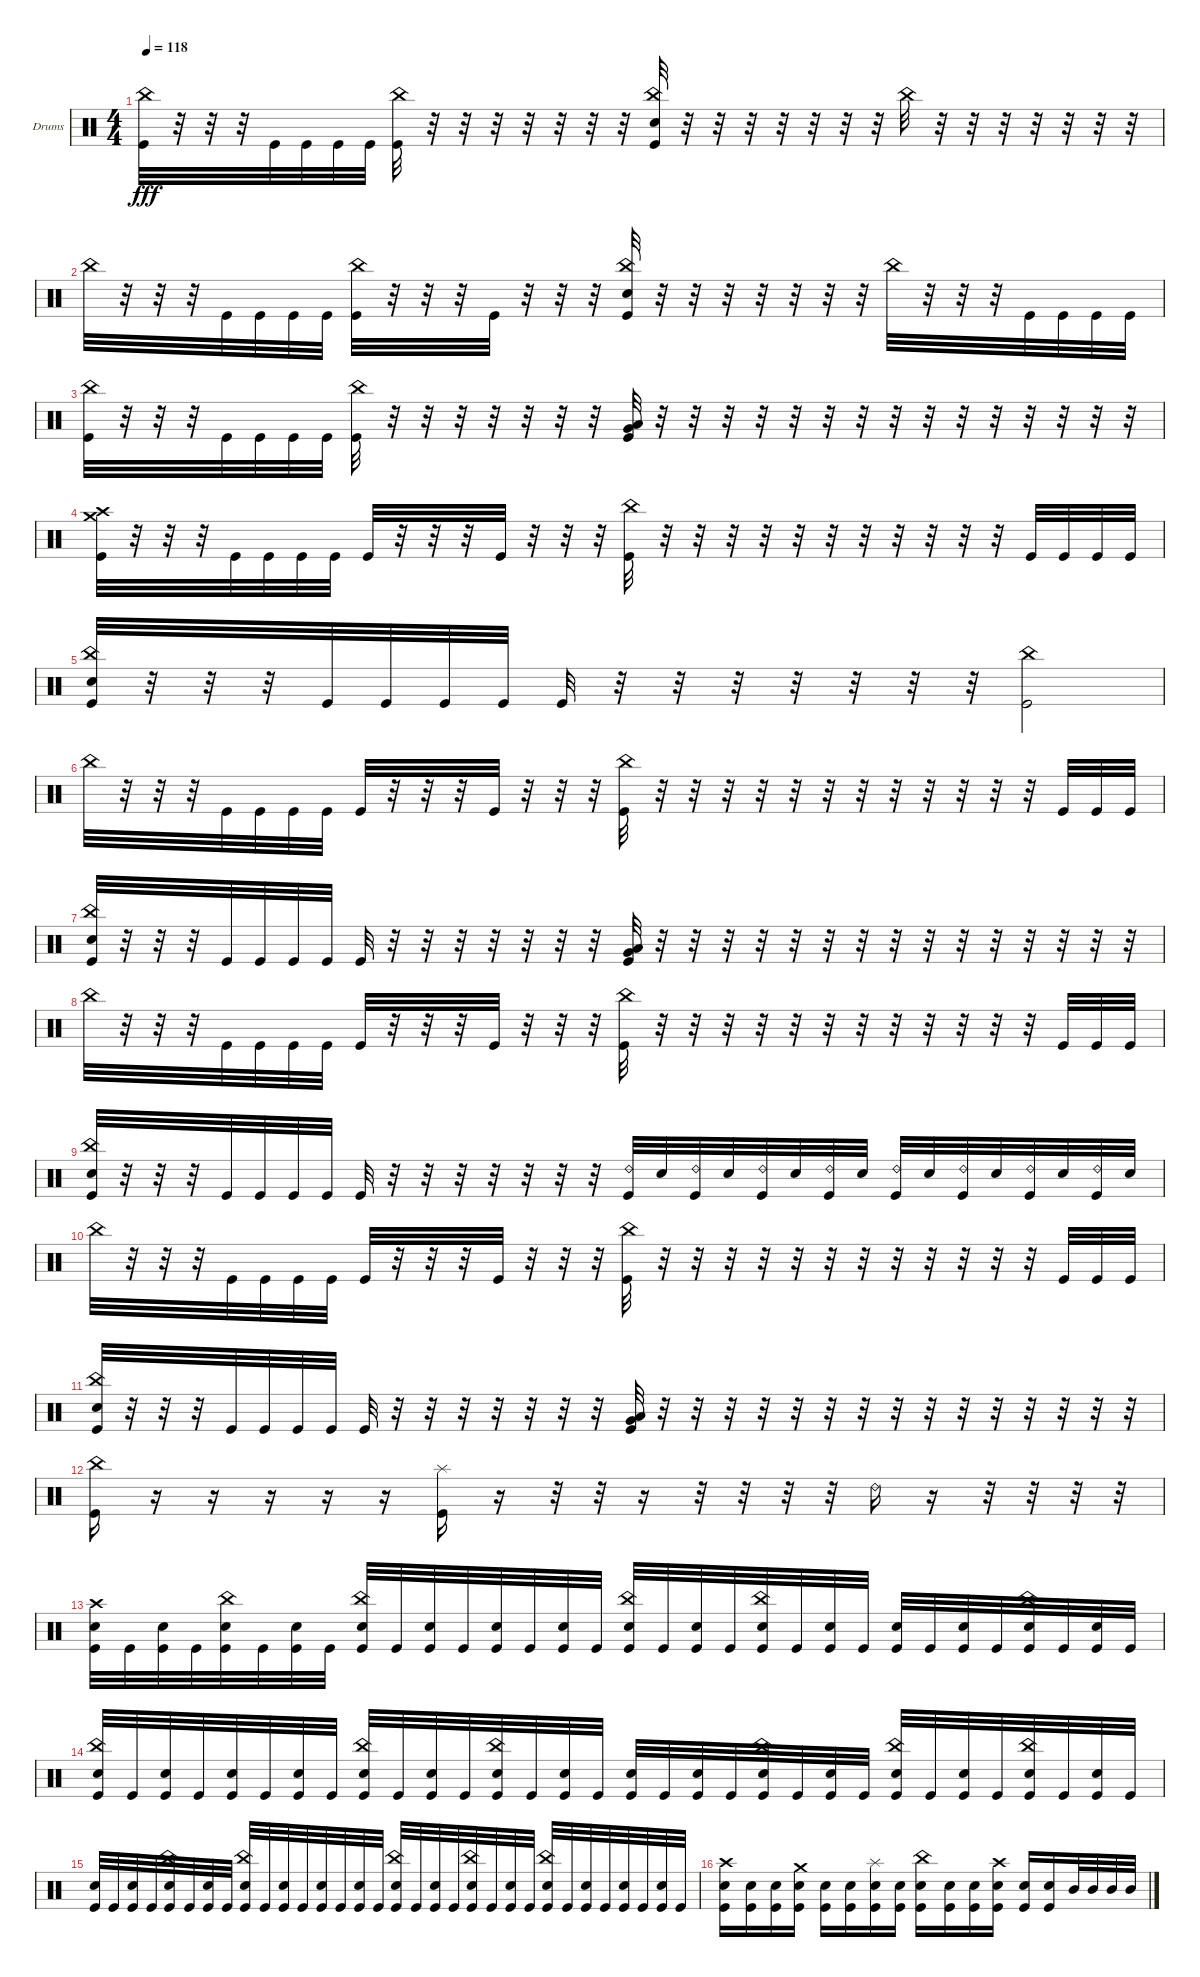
\bracketExtendMode groupsimilarinstruments
\firstSystemTrackNameOrientation horizontal
\otherSystemsTrackNameOrientation horizontal
\track ("Drumkit" "Drums") {instrument percussion}
\staff {score}
\articulation defaults
\ts (4 4)
\tempo 118
\clef neutral
\ks c
("Kick (hit)" "China (hit)").32{dy fff} r.32 r.32 r.32 "Kick (hit)".32 "Kick (hit)".32 "Kick (hit)".32 "Kick (hit)".32 ("China (hit)" "Kick (hit)").32 r.32 r.32 r.32 r.32 r.32 r.32 r.32 ("China (hit)" "Kick (hit)" "Snare (hit) 2").32 r.32 r.32 r.32 r.32 r.32 r.32 r.32 "China (hit)".32 r.32 r.32 r.32 r.32 r.32 r.32 r.32 |
"China (hit)".32 r.32 r.32 r.32 "Kick (hit)".32 "Kick (hit)".32 "Kick (hit)".32 "Kick (hit)".32 ("China (hit)" "Kick (hit)").32 r.32 r.32 r.32 "Kick (hit)".32 r.32 r.32 r.32 ("China (hit)" "Kick (hit)" "Snare (hit) 2").32 r.32 r.32 r.32 r.32 r.32 r.32 r.32 "China (hit)".32 r.32 r.32 r.32 "Kick (hit)".32 "Kick (hit)".32 "Kick (hit)".32 "Kick (hit)".32 |
("Kick (hit)" "China (hit)").32 r.32 r.32 r.32 "Kick (hit)".32 "Kick (hit)".32 "Kick (hit)".32 "Kick (hit)".32 ("China (hit)" "Kick (hit)").32 r.32 r.32 r.32 r.32 r.32 r.32 r.32 ("Very Low Tom (hit)" "Low Tom (hit)" "Kick (hit)").32 r.32 r.32 r.32 r.32 r.32 r.32 r.32 r.32 r.32 r.32 r.32 r.32 r.32 r.32 r.32 |
("Kick (hit)" "Crash high (hit)" "Crash medium (hit)").32 r.32 r.32 r.32 "Kick (hit)".32 "Kick (hit)".32 "Kick (hit)".32 "Kick (hit)".32 "Kick (hit)".32 r.32 r.32 r.32 "Kick (hit)".32 r.32 r.32 r.32 ("China (hit)" "Kick (hit)").32 r.32 r.32 r.32 r.32 r.32 r.32 r.32 r.32 r.32 r.32 r.32 "Kick (hit)".32 "Kick (hit)".32 "Kick (hit)".32 "Kick (hit)".32 |
("Kick (hit)" "China (hit)" "Snare (hit) 2").32 r.32 r.32 r.32 "Kick (hit)".32 "Kick (hit)".32 "Kick (hit)".32 "Kick (hit)".32 "Kick (hit)".32 r.32 r.32 r.32 r.32 r.32 r.32 r.32 ("Kick (hit)" "China (hit)").2 |
"China (hit)".32 r.32 r.32 r.32 "Kick (hit)".32 "Kick (hit)".32 "Kick (hit)".32 "Kick (hit)".32 "Kick (hit)".32 r.32 r.32 r.32 "Kick (hit)".32 r.32 r.32 r.32 ("China (hit)" "Kick (hit)").32 r.32 r.32 r.32 r.32 r.32 r.32 r.32 r.32 r.32 r.32 r.32 r.32 "Kick (hit)".32 "Kick (hit)".32 "Kick (hit)".32 |
("Kick (hit)" "China (hit)" "Snare (hit) 2").32 r.32 r.32 r.32 "Kick (hit)".32 "Kick (hit)".32 "Kick (hit)".32 "Kick (hit)".32 "Kick (hit)".32 r.32 r.32 r.32 r.32 r.32 r.32 r.32 ("Very Low Tom (hit)" "Low Tom (hit)" "Kick (hit)").32 r.32 r.32 r.32 r.32 r.32 r.32 r.32 r.32 r.32 r.32 r.32 r.32 r.32 r.32 r.32 |
"China (hit)".32 r.32 r.32 r.32 "Kick (hit)".32 "Kick (hit)".32 "Kick (hit)".32 "Kick (hit)".32 "Kick (hit)".32 r.32 r.32 r.32 "Kick (hit)".32 r.32 r.32 r.32 ("China (hit)" "Kick (hit)").32 r.32 r.32 r.32 r.32 r.32 r.32 r.32 r.32 r.32 r.32 r.32 r.32 "Kick (hit)".32 "Kick (hit)".32 "Kick (hit)".32 |
("Kick (hit)" "China (hit)" "Snare (hit) 2").32 r.32 r.32 r.32 "Kick (hit)".32 "Kick (hit)".32 "Kick (hit)".32 "Kick (hit)".32 "Kick (hit)".32 r.32 r.32 r.32 r.32 r.32 r.32 r.32 ("Kick (hit)" "Ride (bell) 2").32 "Snare (hit) 2".32 ("Kick (hit)" "Ride (bell) 2").32 "Snare (hit) 2".32 ("Kick (hit)" "Ride (bell) 2").32 "Snare (hit) 2".32 ("Kick (hit)" "Ride (bell) 2").32 "Snare (hit) 2".32 ("Kick (hit)" "Ride (bell) 2").32 "Snare (hit) 2".32 ("Kick (hit)" "Ride (bell) 2").32 "Snare (hit) 2".32 ("Kick (hit)" "Ride (bell) 2").32 "Snare (hit) 2".32 ("Kick (hit)" "Ride (bell) 2").32 "Snare (hit) 2".32 |
"China (hit)".32 r.32 r.32 r.32 "Kick (hit)".32 "Kick (hit)".32 "Kick (hit)".32 "Kick (hit)".32 "Kick (hit)".32 r.32 r.32 r.32 "Kick (hit)".32 r.32 r.32 r.32 ("China (hit)" "Kick (hit)").32 r.32 r.32 r.32 r.32 r.32 r.32 r.32 r.32 r.32 r.32 r.32 r.32 "Kick (hit)".32 "Kick (hit)".32 "Kick (hit)".32 |
("Kick (hit)" "China (hit)" "Snare (hit) 2").32 r.32 r.32 r.32 "Kick (hit)".32 "Kick (hit)".32 "Kick (hit)".32 "Kick (hit)".32 "Kick (hit)".32 r.32 r.32 r.32 r.32 r.32 r.32 r.32 ("Very Low Tom (hit)" "Low Tom (hit)" "Kick (hit)").32 r.32 r.32 r.32 r.32 r.32 r.32 r.32 r.32 r.32 r.32 r.32 r.32 r.32 r.32 r.32 |
("Kick (hit)" "China (hit)").16 r.16 r.16 r.16 r.16 r.16 ("Kick (hit)" "Splash (hit)").16 r.16 r.32 r.32 r.16 r.32 r.32 r.32 r.32 "Ride (bell) 2".16 r.16 r.32 r.32 r.32 r.32 |
("Kick (hit)" "Crash high (hit)" "Snare (hit) 2").32 "Kick (hit)".32 ("Kick (hit)" "Snare (hit) 2").32 "Kick (hit)".32 ("Kick (hit)" "Snare (hit) 2" "China (hit)").32 "Kick (hit)".32 ("Kick (hit)" "Snare (hit) 2").32 "Kick (hit)".32 ("Kick (hit)" "Snare (hit) 2" "China (hit)").32 "Kick (hit)".32 ("Kick (hit)" "Snare (hit) 2").32 "Kick (hit)".32 ("Kick (hit)" "Snare (hit) 2").32 "Kick (hit)".32 ("Kick (hit)" "Snare (hit) 2").32 "Kick (hit)".32 ("Kick (hit)" "Snare (hit) 2" "China (hit)").32 "Kick (hit)".32 ("Kick (hit)" "Snare (hit) 2").32 "Kick (hit)".32 ("Kick (hit)" "Snare (hit) 2" "China (hit)").32 "Kick (hit)".32 ("Kick (hit)" "Snare (hit) 2").32 "Kick (hit)".32 ("Kick (hit)" "Snare (hit) 2").32 "Kick (hit)".32 ("Kick (hit)" "Snare (hit) 2").32 "Kick (hit)".32 ("Kick (hit)" "Snare (hit) 2" "China (hit)").32 "Kick (hit)".32 ("Kick (hit)" "Snare (hit) 2").32 "Kick (hit)".32 |
("Kick (hit)" "Snare (hit) 2" "China (hit)").32 "Kick (hit)".32 ("Kick (hit)" "Snare (hit) 2").32 "Kick (hit)".32 ("Kick (hit)" "Snare (hit) 2").32 "Kick (hit)".32 ("Kick (hit)" "Snare (hit) 2").32 "Kick (hit)".32 ("Kick (hit)" "Snare (hit) 2" "China (hit)").32 "Kick (hit)".32 ("Kick (hit)" "Snare (hit) 2").32 "Kick (hit)".32 ("Kick (hit)" "Snare (hit) 2" "China (hit)").32 "Kick (hit)".32 ("Kick (hit)" "Snare (hit) 2").32 "Kick (hit)".32 ("Kick (hit)" "Snare (hit) 2").32 "Kick (hit)".32 ("Kick (hit)" "Snare (hit) 2").32 "Kick (hit)".32 ("Kick (hit)" "Snare (hit) 2" "China (hit)").32 "Kick (hit)".32 ("Kick (hit)" "Snare (hit) 2").32 "Kick (hit)".32 ("Kick (hit)" "Snare (hit) 2" "China (hit)").32 "Kick (hit)".32 ("Kick (hit)" "Snare (hit) 2").32 "Kick (hit)".32 ("Kick (hit)" "Snare (hit) 2" "China (hit)").32 "Kick (hit)".32 ("Kick (hit)" "Snare (hit) 2").32 "Kick (hit)".32 |
("Kick (hit)" "Snare (hit) 2").32 "Kick (hit)".32 ("Kick (hit)" "Snare (hit) 2").32 "Kick (hit)".32 ("Kick (hit)" "Snare (hit) 2" "China (hit)").32 "Kick (hit)".32 ("Kick (hit)" "Snare (hit) 2").32 "Kick (hit)".32 ("Kick (hit)" "Snare (hit) 2" "China (hit)").32 "Kick (hit)".32 ("Kick (hit)" "Snare (hit) 2").32 "Kick (hit)".32 ("Kick (hit)" "Snare (hit) 2").32 "Kick (hit)".32 ("Kick (hit)" "Snare (hit) 2").32 "Kick (hit)".32 ("Kick (hit)" "Snare (hit) 2" "China (hit)").32 "Kick (hit)".32 ("Kick (hit)" "Snare (hit) 2").32 "Kick (hit)".32 ("Kick (hit)" "Snare (hit) 2" "China (hit)").32 "Kick (hit)".32 ("Kick (hit)" "Snare (hit) 2").32 "Kick (hit)".32 ("Kick (hit)" "Snare (hit) 2" "China (hit)").32 "Kick (hit)".32 ("Kick (hit)" "Snare (hit) 2").32 "Kick (hit)".32 ("Kick (hit)" "Snare (hit) 2").32 "Kick (hit)".32 ("Kick (hit)" "Snare (hit) 2").32 "Kick (hit)".32 |
("Snare (hit) 2" "Kick (hit)" "Crash high (hit)").16 ("Snare (hit) 2" "Kick (hit)").16 ("Snare (hit) 2" "Kick (hit)").16 ("Snare (hit) 2" "Kick (hit)" "Crash medium (hit)").16 ("Snare (hit) 2" "Kick (hit)").16 ("Snare (hit) 2" "Kick (hit)").16 ("Snare (hit) 2" "Kick (hit)" "Splash (hit)").16 ("Snare (hit) 2" "Kick (hit)").16 ("Snare (hit) 2" "Kick (hit)" "China (hit)").16 ("Snare (hit) 2" "Kick (hit)").16 ("Snare (hit) 2" "Kick (hit)").16 ("Snare (hit) 2" "Kick (hit)" "Crash high (hit)").16 ("Snare (hit) 2" "Kick (hit)").16 ("Snare (hit) 2" "Kick (hit)").16 "Mid Tom (hit)".32 "Mid Tom (hit)".32 "Mid Tom (hit)".32 "Mid Tom (hit)".32
